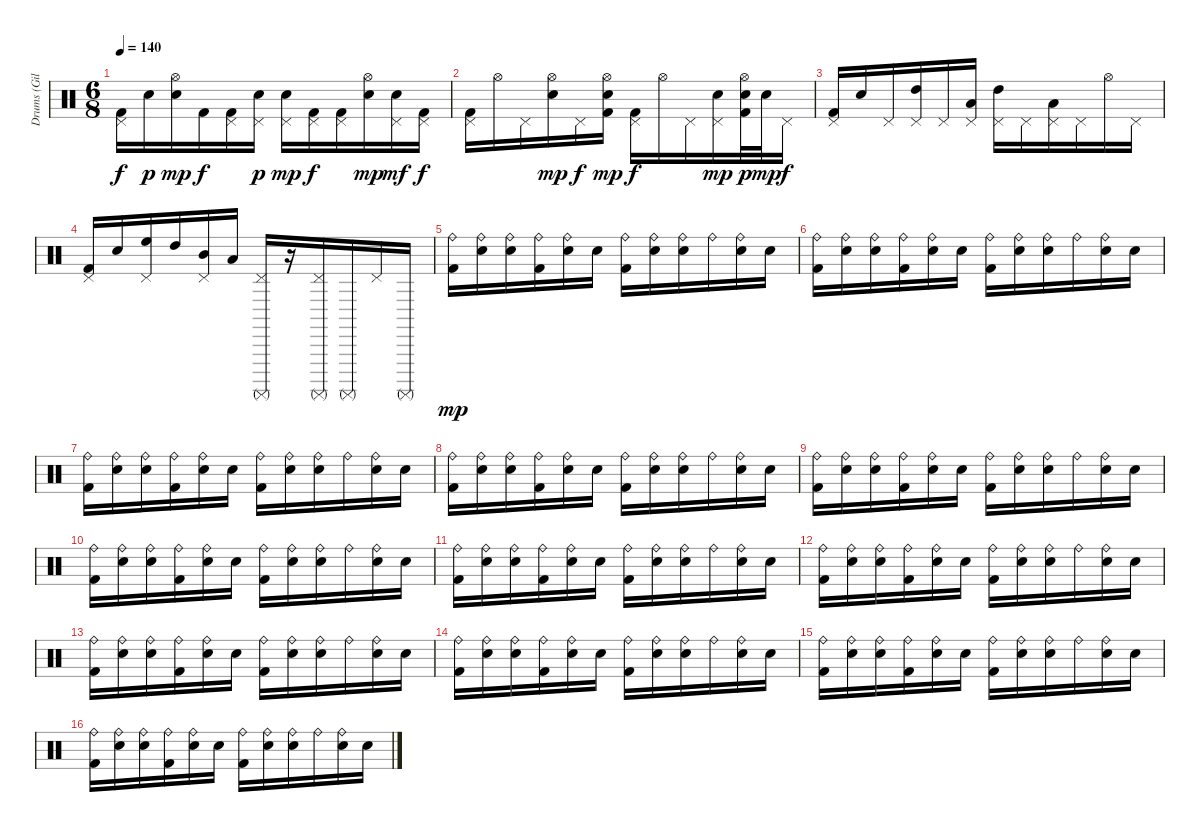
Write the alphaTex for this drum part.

\track ("Drums (Giles)" "Drums (Gil") {instrument percussion}
\staff {score}
\articulation defaults
\ts (6 8)
\tempo 140
\clef neutral
\ks c
("Pedal Hi-Hat (hit)" "Kick (hit) 2").16{dy f} "Electric Snare (hit)".16{dy p} ("Hi-Hat (open)" "Electric Snare (hit)").16{dy mp} "Kick (hit) 2".16{dy f} ("Pedal Hi-Hat (hit)" "Kick (hit) 2").16 ("Pedal Hi-Hat (hit)" "Electric Snare (hit)").16{dy p} ("Pedal Hi-Hat (hit)" "Electric Snare (hit)").16{dy mp} ("Pedal Hi-Hat (hit)" "Kick (hit) 2").16{dy f} ("Pedal Hi-Hat (hit)" "Kick (hit) 2").16 ("Hi-Hat (open)" "Electric Snare (hit)").16{dy mp} ("Pedal Hi-Hat (hit)" "Electric Snare (hit)").16{dy mf} ("Pedal Hi-Hat (hit)" "Kick (hit) 2").16{dy f} |
("Pedal Hi-Hat (hit)" "Kick (hit) 2").16 "Hi-Hat (open)".16 "Pedal Hi-Hat (hit)".16 ("Hi-Hat (open)" "Electric Snare (hit)").16{dy mp} "Pedal Hi-Hat (hit)".16{dy f} ("Hi-Hat (open)" "Electric Snare (hit)" "Kick (hit) 2").16{dy mp} ("Pedal Hi-Hat (hit)" "Kick (hit) 2").16{dy f} "Hi-Hat (open)".16 "Pedal Hi-Hat (hit)".16 ("Pedal Hi-Hat (hit)" "Electric Snare (hit)").16{dy mp} ("Hi-Hat (open)" "Electric Snare (hit)" "Kick (hit) 2").32{dy p} "Electric Snare (hit)".32{dy mp} "Pedal Hi-Hat (hit)".16{dy f} |
("Pedal Hi-Hat (hit)" "Kick (hit) 2").16 "Electric Snare (hit)".16 "Pedal Hi-Hat (hit)".16 ("Pedal Hi-Hat (hit)" "High Tom (hit)").16 "Pedal Hi-Hat (hit)".16 ("Pedal Hi-Hat (hit)" "Low Tom (hit)").16 ("Pedal Hi-Hat (hit)" "High Tom (hit)").16 "Pedal Hi-Hat (hit)".16 ("Pedal Hi-Hat (hit)" "Low Tom (hit)").16 "Pedal Hi-Hat (hit)".16 "Hi-Hat (open)".16 "Pedal Hi-Hat (hit)".16 |
("Pedal Hi-Hat (hit)" "Kick (hit) 2").16 "Electric Snare (hit)".16 ("Pedal Hi-Hat (hit)" "High Floor Tom (hit)").16 "High Tom (hit)".16 ("Pedal Hi-Hat (hit)" "Mid Tom (hit)").16 "Low Tom (hit)".16 ("Pedal Hi-Hat (hit)" "Surdo (mute)").16 r.16 ("Pedal Hi-Hat (hit)" "Surdo (mute)").16 "Surdo (mute)".16 "Pedal Hi-Hat (hit)".16 "Surdo (mute)".16 |
("Ride (bell)" "Kick (hit) 2").16{dy mp} ("Ride (bell)" "Electric Snare (hit)").16 ("Ride (bell)" "Electric Snare (hit)").16 ("Ride (bell)" "Kick (hit) 2").16 ("Ride (bell)" "Electric Snare (hit)").16 "Electric Snare (hit)".16 ("Ride (bell)" "Kick (hit) 2").16 ("Ride (bell)" "Electric Snare (hit)").16 ("Ride (bell)" "Electric Snare (hit)").16 "Ride (bell)".16 ("Ride (bell)" "Electric Snare (hit)").16 "Electric Snare (hit)".16 |
("Ride (bell)" "Kick (hit) 2").16 ("Ride (bell)" "Electric Snare (hit)").16 ("Ride (bell)" "Electric Snare (hit)").16 ("Ride (bell)" "Kick (hit) 2").16 ("Ride (bell)" "Electric Snare (hit)").16 "Electric Snare (hit)".16 ("Ride (bell)" "Kick (hit) 2").16 ("Ride (bell)" "Electric Snare (hit)").16 ("Ride (bell)" "Electric Snare (hit)").16 "Ride (bell)".16 ("Ride (bell)" "Electric Snare (hit)").16 "Electric Snare (hit)".16 |
("Ride (bell)" "Kick (hit) 2").16 ("Ride (bell)" "Electric Snare (hit)").16 ("Ride (bell)" "Electric Snare (hit)").16 ("Ride (bell)" "Kick (hit) 2").16 ("Ride (bell)" "Electric Snare (hit)").16 "Electric Snare (hit)".16 ("Ride (bell)" "Kick (hit) 2").16 ("Ride (bell)" "Electric Snare (hit)").16 ("Ride (bell)" "Electric Snare (hit)").16 "Ride (bell)".16 ("Ride (bell)" "Electric Snare (hit)").16 "Electric Snare (hit)".16 |
("Ride (bell)" "Kick (hit) 2").16 ("Ride (bell)" "Electric Snare (hit)").16 ("Ride (bell)" "Electric Snare (hit)").16 ("Ride (bell)" "Kick (hit) 2").16 ("Ride (bell)" "Electric Snare (hit)").16 "Electric Snare (hit)".16 ("Ride (bell)" "Kick (hit) 2").16 ("Ride (bell)" "Electric Snare (hit)").16 ("Ride (bell)" "Electric Snare (hit)").16 "Ride (bell)".16 ("Ride (bell)" "Electric Snare (hit)").16 "Electric Snare (hit)".16 |
("Ride (bell)" "Kick (hit) 2").16 ("Ride (bell)" "Electric Snare (hit)").16 ("Ride (bell)" "Electric Snare (hit)").16 ("Ride (bell)" "Kick (hit) 2").16 ("Ride (bell)" "Electric Snare (hit)").16 "Electric Snare (hit)".16 ("Ride (bell)" "Kick (hit) 2").16 ("Ride (bell)" "Electric Snare (hit)").16 ("Ride (bell)" "Electric Snare (hit)").16 "Ride (bell)".16 ("Ride (bell)" "Electric Snare (hit)").16 "Electric Snare (hit)".16 |
("Ride (bell)" "Kick (hit) 2").16 ("Ride (bell)" "Electric Snare (hit)").16 ("Ride (bell)" "Electric Snare (hit)").16 ("Ride (bell)" "Kick (hit) 2").16 ("Ride (bell)" "Electric Snare (hit)").16 "Electric Snare (hit)".16 ("Ride (bell)" "Kick (hit) 2").16 ("Ride (bell)" "Electric Snare (hit)").16 ("Ride (bell)" "Electric Snare (hit)").16 "Ride (bell)".16 ("Ride (bell)" "Electric Snare (hit)").16 "Electric Snare (hit)".16 |
("Ride (bell)" "Kick (hit) 2").16 ("Ride (bell)" "Electric Snare (hit)").16 ("Ride (bell)" "Electric Snare (hit)").16 ("Ride (bell)" "Kick (hit) 2").16 ("Ride (bell)" "Electric Snare (hit)").16 "Electric Snare (hit)".16 ("Ride (bell)" "Kick (hit) 2").16 ("Ride (bell)" "Electric Snare (hit)").16 ("Ride (bell)" "Electric Snare (hit)").16 "Ride (bell)".16 ("Ride (bell)" "Electric Snare (hit)").16 "Electric Snare (hit)".16 |
("Ride (bell)" "Kick (hit) 2").16 ("Ride (bell)" "Electric Snare (hit)").16 ("Ride (bell)" "Electric Snare (hit)").16 ("Ride (bell)" "Kick (hit) 2").16 ("Ride (bell)" "Electric Snare (hit)").16 "Electric Snare (hit)".16 ("Ride (bell)" "Kick (hit) 2").16 ("Ride (bell)" "Electric Snare (hit)").16 ("Ride (bell)" "Electric Snare (hit)").16 "Ride (bell)".16 ("Ride (bell)" "Electric Snare (hit)").16 "Electric Snare (hit)".16 |
("Ride (bell)" "Kick (hit) 2").16 ("Ride (bell)" "Electric Snare (hit)").16 ("Ride (bell)" "Electric Snare (hit)").16 ("Ride (bell)" "Kick (hit) 2").16 ("Ride (bell)" "Electric Snare (hit)").16 "Electric Snare (hit)".16 ("Ride (bell)" "Kick (hit) 2").16 ("Ride (bell)" "Electric Snare (hit)").16 ("Ride (bell)" "Electric Snare (hit)").16 "Ride (bell)".16 ("Ride (bell)" "Electric Snare (hit)").16 "Electric Snare (hit)".16 |
("Ride (bell)" "Kick (hit) 2").16 ("Ride (bell)" "Electric Snare (hit)").16 ("Ride (bell)" "Electric Snare (hit)").16 ("Ride (bell)" "Kick (hit) 2").16 ("Ride (bell)" "Electric Snare (hit)").16 "Electric Snare (hit)".16 ("Ride (bell)" "Kick (hit) 2").16 ("Ride (bell)" "Electric Snare (hit)").16 ("Ride (bell)" "Electric Snare (hit)").16 "Ride (bell)".16 ("Ride (bell)" "Electric Snare (hit)").16 "Electric Snare (hit)".16 |
("Ride (bell)" "Kick (hit) 2").16 ("Ride (bell)" "Electric Snare (hit)").16 ("Ride (bell)" "Electric Snare (hit)").16 ("Ride (bell)" "Kick (hit) 2").16 ("Ride (bell)" "Electric Snare (hit)").16 "Electric Snare (hit)".16 ("Ride (bell)" "Kick (hit) 2").16 ("Ride (bell)" "Electric Snare (hit)").16 ("Ride (bell)" "Electric Snare (hit)").16 "Ride (bell)".16 ("Ride (bell)" "Electric Snare (hit)").16 "Electric Snare (hit)".16 |
("Ride (bell)" "Kick (hit) 2").16 ("Ride (bell)" "Electric Snare (hit)").16 ("Ride (bell)" "Electric Snare (hit)").16 ("Ride (bell)" "Kick (hit) 2").16 ("Ride (bell)" "Electric Snare (hit)").16 "Electric Snare (hit)".16 ("Ride (bell)" "Kick (hit) 2").16 ("Ride (bell)" "Electric Snare (hit)").16 ("Ride (bell)" "Electric Snare (hit)").16 "Ride (bell)".16 ("Ride (bell)" "Electric Snare (hit)").16 "Electric Snare (hit)".16
